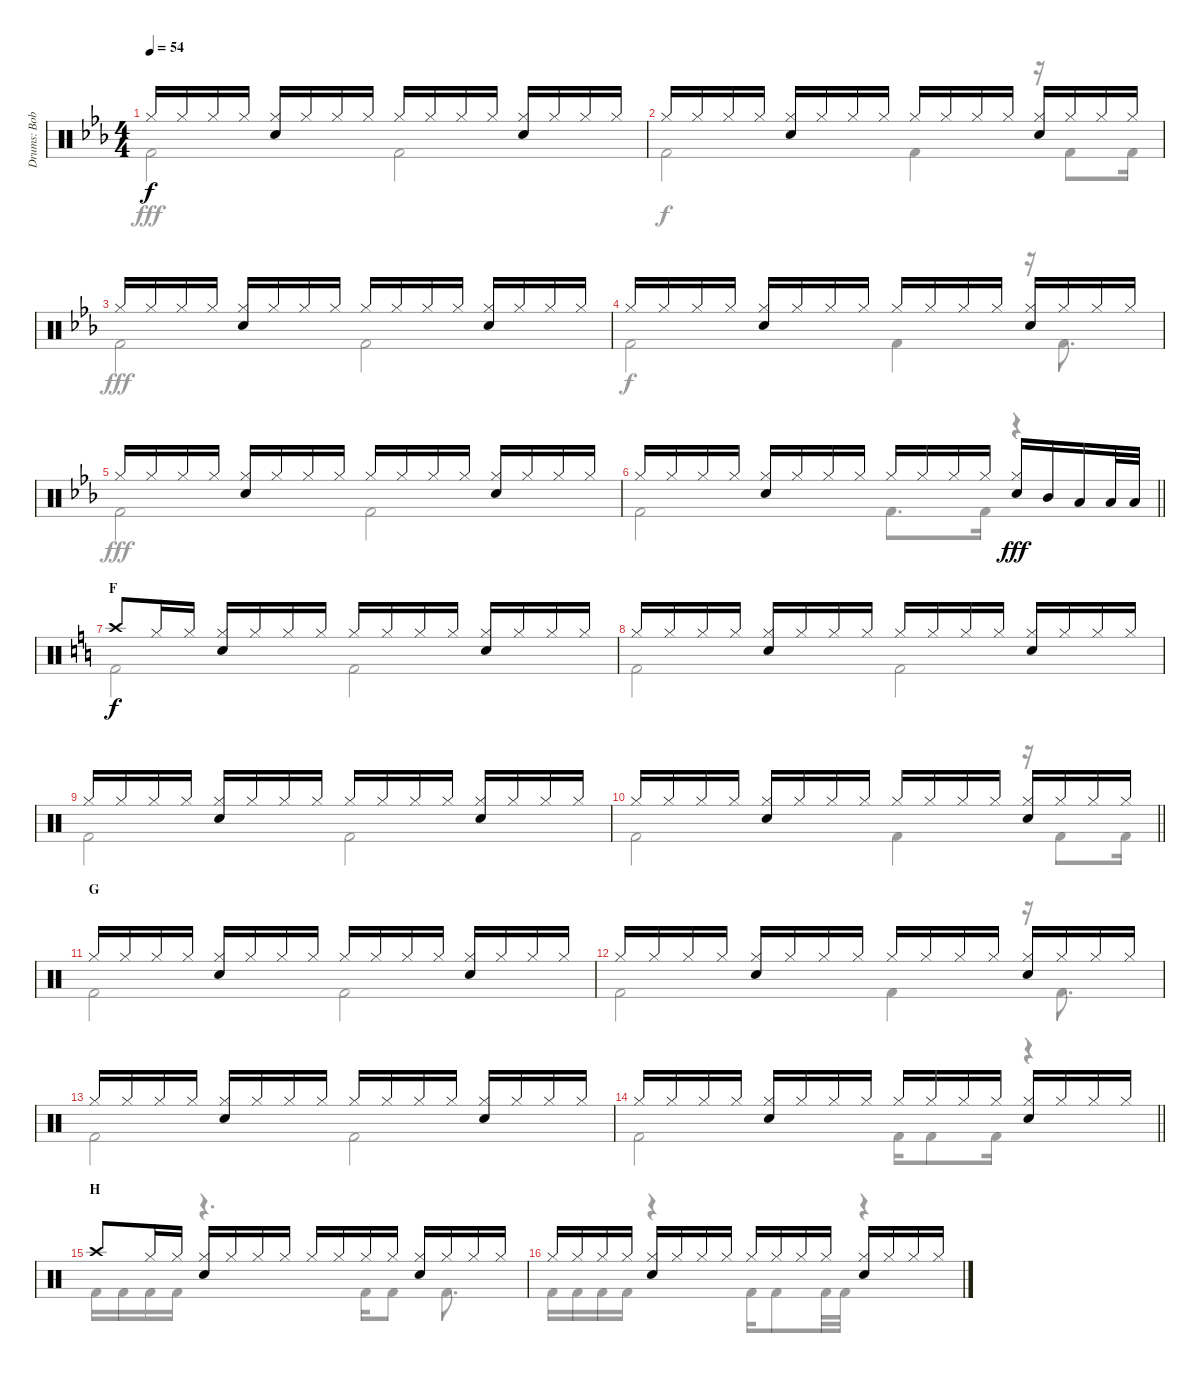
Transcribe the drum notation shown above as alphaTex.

\track ("Drums: Bobby" "Drums: Bob") {instrument percussion}
\staff {score}
\articulation defaults
\voice
\ts (4 4)
\tempo 54
\clef neutral
\ks eb "Hi-Hat (closed)".16{dy f} "Hi-Hat (closed)".16 "Hi-Hat (closed)".16 "Hi-Hat (closed)".16
("Hi-Hat (closed)" "Snare (hit) 2").16 "Hi-Hat (closed)".16 "Hi-Hat (closed)".16 "Hi-Hat (closed)".16 "Hi-Hat (closed)".16 "Hi-Hat (closed)".16 "Hi-Hat (closed)".16 "Hi-Hat (closed)".16 ("Hi-Hat (closed)" "Snare (hit) 2").16 "Hi-Hat (closed)".16 "Hi-Hat (closed)".16 "Hi-Hat (closed)".16 |
"Hi-Hat (closed)".16 "Hi-Hat (closed)".16 "Hi-Hat (closed)".16 "Hi-Hat (closed)".16 ("Hi-Hat (closed)" "Snare (hit) 2").16 "Hi-Hat (closed)".16 "Hi-Hat (closed)".16 "Hi-Hat (closed)".16 "Hi-Hat (closed)".16 "Hi-Hat (closed)".16 "Hi-Hat (closed)".16 "Hi-Hat (closed)".16 ("Hi-Hat (closed)" "Snare (hit) 2").16 "Hi-Hat (closed)".16 "Hi-Hat (closed)".16 "Hi-Hat (closed)".16 |
"Hi-Hat (closed)".16 "Hi-Hat (closed)".16 "Hi-Hat (closed)".16 "Hi-Hat (closed)".16 ("Hi-Hat (closed)" "Snare (hit) 2").16 "Hi-Hat (closed)".16 "Hi-Hat (closed)".16 "Hi-Hat (closed)".16 "Hi-Hat (closed)".16 "Hi-Hat (closed)".16 "Hi-Hat (closed)".16 "Hi-Hat (closed)".16 ("Hi-Hat (closed)" "Snare (hit) 2").16 "Hi-Hat (closed)".16 "Hi-Hat (closed)".16 "Hi-Hat (closed)".16 |
"Hi-Hat (closed)".16 "Hi-Hat (closed)".16 "Hi-Hat (closed)".16 "Hi-Hat (closed)".16 ("Hi-Hat (closed)" "Snare (hit) 2").16 "Hi-Hat (closed)".16 "Hi-Hat (closed)".16 "Hi-Hat (closed)".16 "Hi-Hat (closed)".16 "Hi-Hat (closed)".16 "Hi-Hat (closed)".16 "Hi-Hat (closed)".16 ("Hi-Hat (closed)" "Snare (hit) 2").16 "Hi-Hat (closed)".16 "Hi-Hat (closed)".16 "Hi-Hat (closed)".16 |
"Hi-Hat (closed)".16 "Hi-Hat (closed)".16 "Hi-Hat (closed)".16 "Hi-Hat (closed)".16 ("Hi-Hat (closed)" "Snare (hit) 2").16 "Hi-Hat (closed)".16 "Hi-Hat (closed)".16 "Hi-Hat (closed)".16 "Hi-Hat (closed)".16 "Hi-Hat (closed)".16 "Hi-Hat (closed)".16 "Hi-Hat (closed)".16 ("Hi-Hat (closed)" "Snare (hit) 2").16 "Hi-Hat (closed)".16 "Hi-Hat (closed)".16 "Hi-Hat (closed)".16 |
\barLineRight lightlight "Hi-Hat (closed)".16 "Hi-Hat (closed)".16 "Hi-Hat (closed)".16 "Hi-Hat (closed)".16
("Hi-Hat (closed)" "Snare (hit) 2").16 "Hi-Hat (closed)".16 "Hi-Hat (closed)".16 "Hi-Hat (closed)".16 "Hi-Hat (closed)".16 "Hi-Hat (closed)".16 "Hi-Hat (closed)".16 "Hi-Hat (closed)".16 ("Hi-Hat (closed)" "Snare (hit) 2").16{dy fff} "Mid Tom (hit)".16 "Low Tom (hit)".16 "Low Tom (hit)".32 "Low Tom (hit)".32 |
\section ("" "F")
\ks c "Crash high (hit)".8{dy f} "Hi-Hat (closed)".16 "Hi-Hat (closed)".16
("Hi-Hat (closed)" "Snare (hit) 2").16 "Hi-Hat (closed)".16 "Hi-Hat (closed)".16 "Hi-Hat (closed)".16 "Hi-Hat (closed)".16 "Hi-Hat (closed)".16 "Hi-Hat (closed)".16 "Hi-Hat (closed)".16 ("Hi-Hat (closed)" "Snare (hit) 2").16 "Hi-Hat (closed)".16 "Hi-Hat (closed)".16 "Hi-Hat (closed)".16 |
"Hi-Hat (closed)".16 "Hi-Hat (closed)".16 "Hi-Hat (closed)".16 "Hi-Hat (closed)".16 ("Hi-Hat (closed)" "Snare (hit) 2").16 "Hi-Hat (closed)".16 "Hi-Hat (closed)".16 "Hi-Hat (closed)".16 "Hi-Hat (closed)".16 "Hi-Hat (closed)".16 "Hi-Hat (closed)".16 "Hi-Hat (closed)".16 ("Hi-Hat (closed)" "Snare (hit) 2").16 "Hi-Hat (closed)".16 "Hi-Hat (closed)".16 "Hi-Hat (closed)".16 |
"Hi-Hat (closed)".16 "Hi-Hat (closed)".16 "Hi-Hat (closed)".16 "Hi-Hat (closed)".16 ("Hi-Hat (closed)" "Snare (hit) 2").16 "Hi-Hat (closed)".16 "Hi-Hat (closed)".16 "Hi-Hat (closed)".16 "Hi-Hat (closed)".16 "Hi-Hat (closed)".16 "Hi-Hat (closed)".16 "Hi-Hat (closed)".16 ("Hi-Hat (closed)" "Snare (hit) 2").16 "Hi-Hat (closed)".16 "Hi-Hat (closed)".16 "Hi-Hat (closed)".16 |
\barLineRight lightlight "Hi-Hat (closed)".16 "Hi-Hat (closed)".16 "Hi-Hat (closed)".16 "Hi-Hat (closed)".16
("Hi-Hat (closed)" "Snare (hit) 2").16 "Hi-Hat (closed)".16 "Hi-Hat (closed)".16 "Hi-Hat (closed)".16 "Hi-Hat (closed)".16 "Hi-Hat (closed)".16 "Hi-Hat (closed)".16 "Hi-Hat (closed)".16 ("Hi-Hat (closed)" "Snare (hit) 2").16 "Hi-Hat (closed)".16 "Hi-Hat (closed)".16 "Hi-Hat (closed)".16 |
\section ("" "G")
"Hi-Hat (closed)".16 "Hi-Hat (closed)".16 "Hi-Hat (closed)".16 "Hi-Hat (closed)".16 ("Hi-Hat (closed)" "Snare (hit) 2").16 "Hi-Hat (closed)".16 "Hi-Hat (closed)".16 "Hi-Hat (closed)".16 "Hi-Hat (closed)".16 "Hi-Hat (closed)".16 "Hi-Hat (closed)".16 "Hi-Hat (closed)".16 ("Hi-Hat (closed)" "Snare (hit) 2").16 "Hi-Hat (closed)".16 "Hi-Hat (closed)".16 "Hi-Hat (closed)".16 |
"Hi-Hat (closed)".16 "Hi-Hat (closed)".16 "Hi-Hat (closed)".16 "Hi-Hat (closed)".16 ("Hi-Hat (closed)" "Snare (hit) 2").16 "Hi-Hat (closed)".16 "Hi-Hat (closed)".16 "Hi-Hat (closed)".16 "Hi-Hat (closed)".16 "Hi-Hat (closed)".16 "Hi-Hat (closed)".16 "Hi-Hat (closed)".16 ("Hi-Hat (closed)" "Snare (hit) 2").16 "Hi-Hat (closed)".16 "Hi-Hat (closed)".16 "Hi-Hat (closed)".16 |
"Hi-Hat (closed)".16 "Hi-Hat (closed)".16 "Hi-Hat (closed)".16 "Hi-Hat (closed)".16 ("Hi-Hat (closed)" "Snare (hit) 2").16 "Hi-Hat (closed)".16 "Hi-Hat (closed)".16 "Hi-Hat (closed)".16 "Hi-Hat (closed)".16 "Hi-Hat (closed)".16 "Hi-Hat (closed)".16 "Hi-Hat (closed)".16 ("Hi-Hat (closed)" "Snare (hit) 2").16 "Hi-Hat (closed)".16 "Hi-Hat (closed)".16 "Hi-Hat (closed)".16 |
\barLineRight lightlight "Hi-Hat (closed)".16 "Hi-Hat (closed)".16 "Hi-Hat (closed)".16 "Hi-Hat (closed)".16
("Hi-Hat (closed)" "Snare (hit) 2").16 "Hi-Hat (closed)".16 "Hi-Hat (closed)".16 "Hi-Hat (closed)".16 "Hi-Hat (closed)".16 "Hi-Hat (closed)".16 "Hi-Hat (closed)".16 "Hi-Hat (closed)".16 ("Hi-Hat (closed)" "Snare (hit) 2").16 "Hi-Hat (closed)".16 "Hi-Hat (closed)".16 "Hi-Hat (closed)".16 |
\section ("" "H")
"Crash high (hit)".8 "Hi-Hat (closed)".16 "Hi-Hat (closed)".16 ("Hi-Hat (closed)" "Snare (hit) 2").16 "Hi-Hat (closed)".16 "Hi-Hat (closed)".16 "Hi-Hat (closed)".16 "Hi-Hat (closed)".16 "Hi-Hat (closed)".16 "Hi-Hat (closed)".16 "Hi-Hat (closed)".16 ("Hi-Hat (closed)" "Snare (hit) 2").16 "Hi-Hat (closed)".16 "Hi-Hat (closed)".16 "Hi-Hat (closed)".16 |
"Hi-Hat (closed)".16 "Hi-Hat (closed)".16 "Hi-Hat (closed)".16 "Hi-Hat (closed)".16 ("Hi-Hat (closed)" "Snare (hit) 2").16 "Hi-Hat (closed)".16 "Hi-Hat (closed)".16 "Hi-Hat (closed)".16 "Hi-Hat (closed)".16 "Hi-Hat (closed)".16 "Hi-Hat (closed)".16 "Hi-Hat (closed)".16 ("Hi-Hat (closed)" "Snare (hit) 2").16 "Hi-Hat (closed)".16 "Hi-Hat (closed)".16 "Hi-Hat (closed)".16
\voice
\clef neutral
\ottava regular
\simile none
\ks eb "Kick (hit) 2".2{dy fff} "Kick (hit) 2".2
|
"Kick (hit) 2".2{dy f} "Kick (hit) 2".4 r.16 "Kick (hit) 2".8 "Kick (hit) 2".16 |
"Kick (hit) 2".2{dy fff} "Kick (hit) 2".2 |
"Kick (hit) 2".2{dy f} "Kick (hit) 2".4 r.16 "Kick (hit) 2".8{d} |
"Kick (hit) 2".2{dy fff} "Kick (hit) 2".2 |
\barLineRight lightlight "Kick (hit) 2".2 "Kick (hit) 2".8{d} "Kick (hit) 2".16
r.4 |
\ks c "Kick (hit) 2".2{dy f} "Kick (hit) 2".2
|
"Kick (hit) 2".2 "Kick (hit) 2".2 |
"Kick (hit) 2".2 "Kick (hit) 2".2 |
\barLineRight lightlight "Kick (hit) 2".2 "Kick (hit) 2".4
r.16 "Kick (hit) 2".8 "Kick (hit) 2".16 |
"Kick (hit) 2".2 "Kick (hit) 2".2 |
"Kick (hit) 2".2 "Kick (hit) 2".4 r.16 "Kick (hit) 2".8{d} |
"Kick (hit) 2".2 "Kick (hit) 2".2 |
\barLineRight lightlight "Kick (hit) 2".2 "Kick (hit) 2".16 "Kick (hit) 2".8 "Kick (hit) 2".16
r.4 |
"Kick (hit) 2".16 "Kick (hit) 2".16 "Kick (hit) 2".16 "Kick (hit) 2".16 r.4{d} "Kick (hit) 2".16 "Kick (hit) 2".8 "Kick (hit) 2".8{d} |
"Kick (hit) 2".16 "Kick (hit) 2".16 "Kick (hit) 2".16 "Kick (hit) 2".16 r.4 "Kick (hit) 2".16 "Kick (hit) 2".8 "Kick (hit) 2".32 "Kick (hit) 2".32 r.4
